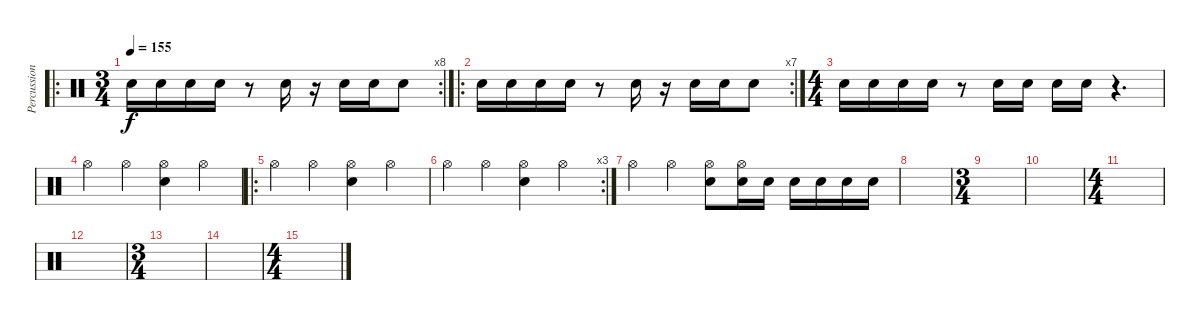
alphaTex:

\track ("Percussion" "Percussion") {instrument percussion}
\staff {score}
\articulation defaults
\ro
\rc 8
\ts (3 4)
\tempo 155
\clef neutral
\ks c "Snare (hit) 2".16{dy f} "Snare (hit) 2".16 "Snare (hit) 2".16 "Snare (hit) 2".16
r.8 "Snare (hit) 2".16 r.16 "Snare (hit) 2".16 "Snare (hit) 2".16 "Snare (hit) 2".8 |
\ro
\rc 7 "Snare (hit) 2".16 "Snare (hit) 2".16 "Snare (hit) 2".16 "Snare (hit) 2".16
r.8 "Snare (hit) 2".16 r.16 "Snare (hit) 2".16 "Snare (hit) 2".16 "Snare (hit) 2".8 |
\ts (4 4)
"Snare (hit) 2".16 "Snare (hit) 2".16 "Snare (hit) 2".16 "Snare (hit) 2".16 r.8 "Snare (hit) 2".16 "Snare (hit) 2".16 "Snare (hit) 2".16 "Snare (hit) 2".16 r.4{d} |
"Hi-Hat (open)".4 "Hi-Hat (open)".4 ("Hi-Hat (open)" "Electric Snare (hit)").4 "Hi-Hat (open)".4 |
\ro "Hi-Hat (open)".4 "Hi-Hat (open)".4
("Hi-Hat (open)" "Electric Snare (hit)").4 "Hi-Hat (open)".4 |
\rc 3 "Hi-Hat (open)".4 "Hi-Hat (open)".4
("Hi-Hat (open)" "Electric Snare (hit)").4 "Hi-Hat (open)".4 |
"Hi-Hat (open)".4 "Hi-Hat (open)".4 ("Hi-Hat (open)" "Electric Snare (hit)").8 ("Hi-Hat (open)" "Electric Snare (hit)").16 "Electric Snare (hit)".16 "Electric Snare (hit)".16 "Electric Snare (hit)".16 "Electric Snare (hit)".16 "Electric Snare (hit)".16 |
|
\ts (3 4)
|
|
\ts (4 4)
|
|
\ts (3 4)
|
|
\ts (4 4)
